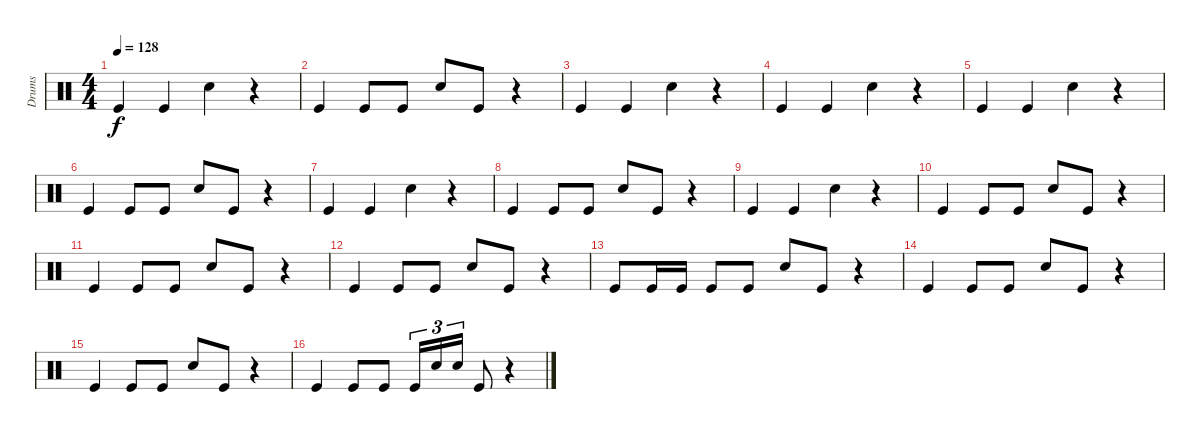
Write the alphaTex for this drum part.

\track ("Drums" "Drums") {instrument percussion}
\staff {score}
\articulation defaults
\ts (4 4)
\tempo 128
\clef neutral
\ks c "Kick (hit)".4{dy f} "Kick (hit)".4 "Snare (hit) 2".4
r.4 |
"Kick (hit)".4 "Kick (hit)".8 "Kick (hit)".8 "Snare (hit) 2".8 "Kick (hit)".8 r.4 |
"Kick (hit)".4 "Kick (hit)".4 "Snare (hit) 2".4 r.4 |
"Kick (hit)".4 "Kick (hit)".4 "Snare (hit) 2".4 r.4 |
"Kick (hit)".4 "Kick (hit)".4 "Snare (hit) 2".4 r.4 |
"Kick (hit)".4 "Kick (hit)".8 "Kick (hit)".8 "Snare (hit) 2".8 "Kick (hit)".8 r.4 |
"Kick (hit)".4 "Kick (hit)".4 "Snare (hit) 2".4 r.4 |
"Kick (hit)".4 "Kick (hit)".8 "Kick (hit)".8 "Snare (hit) 2".8 "Kick (hit)".8 r.4 |
"Kick (hit)".4 "Kick (hit)".4 "Snare (hit) 2".4 r.4 |
"Kick (hit)".4 "Kick (hit)".8 "Kick (hit)".8 "Snare (hit) 2".8 "Kick (hit)".8 r.4 |
"Kick (hit)".4 "Kick (hit)".8 "Kick (hit)".8 "Snare (hit) 2".8 "Kick (hit)".8 r.4 |
"Kick (hit)".4 "Kick (hit)".8 "Kick (hit)".8 "Snare (hit) 2".8 "Kick (hit)".8 r.4 |
"Kick (hit)".8 "Kick (hit)".16 "Kick (hit)".16 "Kick (hit)".8 "Kick (hit)".8 "Snare (hit) 2".8 "Kick (hit)".8 r.4 |
"Kick (hit)".4 "Kick (hit)".8 "Kick (hit)".8 "Snare (hit) 2".8 "Kick (hit)".8 r.4 |
"Kick (hit)".4 "Kick (hit)".8 "Kick (hit)".8 "Snare (hit) 2".8 "Kick (hit)".8 r.4 |
"Kick (hit)".4 "Kick (hit)".8 "Kick (hit)".8 "Kick (hit)".16{tu (3 2)} "Snare (hit) 2".16{tu (3 2)} "Snare (hit) 2".16{tu (3 2)} "Kick (hit)".8 r.4
